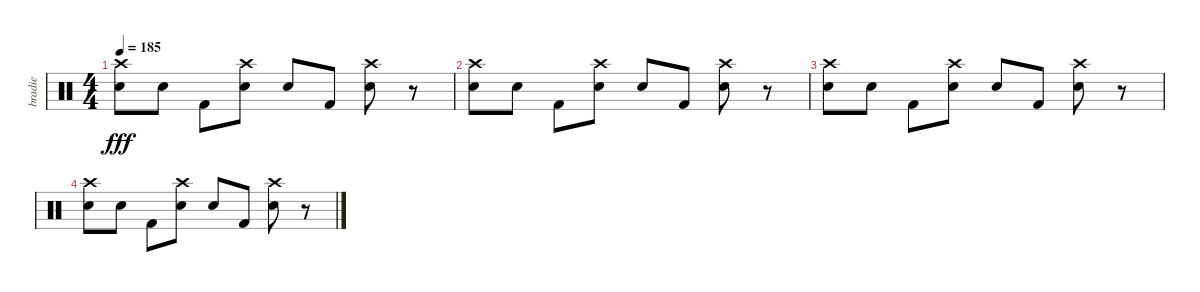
\track ("bradie" "bradie") {instrument percussion}
\staff {score}
\articulation defaults
\ts (4 4)
\tempo 185
\clef neutral
\ks c
("Crash high (hit)" "Electric Snare (hit)").8{dy fff} "Electric Snare (hit)".8 "Kick (hit) 2".8 ("Crash high (hit)" "Electric Snare (hit)").8 "Electric Snare (hit)".8 "Kick (hit) 2".8 ("Crash high (hit)" "Electric Snare (hit)").8 r.8 |
("Crash high (hit)" "Electric Snare (hit)").8 "Electric Snare (hit)".8 "Kick (hit) 2".8 ("Crash high (hit)" "Electric Snare (hit)").8 "Electric Snare (hit)".8 "Kick (hit) 2".8 ("Crash high (hit)" "Electric Snare (hit)").8 r.8 |
("Crash high (hit)" "Electric Snare (hit)").8 "Electric Snare (hit)".8 "Kick (hit) 2".8 ("Crash high (hit)" "Electric Snare (hit)").8 "Electric Snare (hit)".8 "Kick (hit) 2".8 ("Crash high (hit)" "Electric Snare (hit)").8 r.8 |
("Crash high (hit)" "Electric Snare (hit)").8 "Electric Snare (hit)".8 "Kick (hit) 2".8 ("Crash high (hit)" "Electric Snare (hit)").8 "Electric Snare (hit)".8 "Kick (hit) 2".8 ("Crash high (hit)" "Electric Snare (hit)").8 r.8
